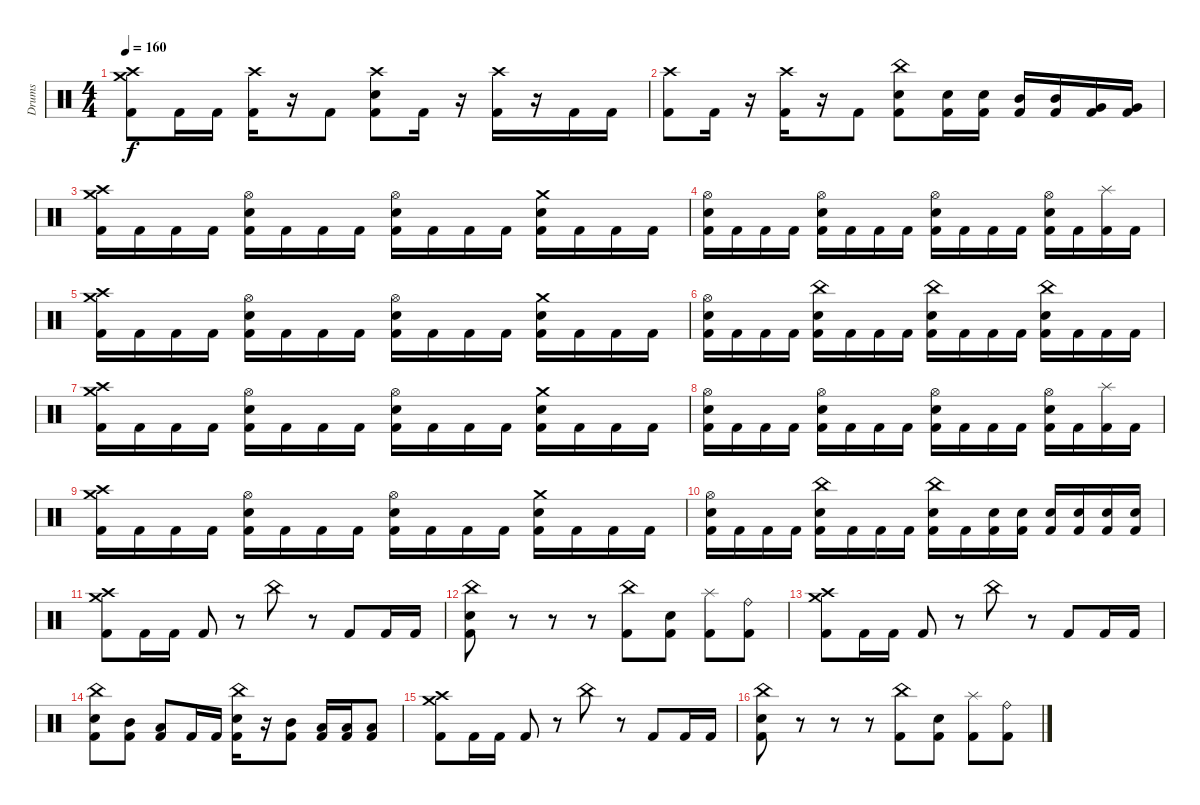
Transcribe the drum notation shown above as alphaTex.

\track ("Drums" "Drums") {instrument percussion}
\staff {score}
\articulation defaults
\ts (4 4)
\tempo 160
\clef neutral
\ks c
("Crash high (hit)" "Crash medium (hit)" "Kick (hit) 2").8{dy f} "Kick (hit) 2".16 "Kick (hit) 2".16 ("Crash high (hit)" "Kick (hit) 2").16 r.16 "Kick (hit) 2".8 ("Crash high (hit)" "Electric Snare (hit)" "Kick (hit) 2").8 "Kick (hit) 2".16 r.16 ("Crash high (hit)" "Kick (hit) 2").16 r.16 "Kick (hit) 2".16 "Kick (hit) 2".16 |
("Crash high (hit)" "Kick (hit) 2").8 "Kick (hit) 2".16 r.16 ("Crash high (hit)" "Kick (hit) 2").16 r.16 "Kick (hit) 2".8 ("China (hit)" "Electric Snare (hit)" "Kick (hit) 2").8 ("Electric Snare (hit)" "Kick (hit) 2").16 ("Electric Snare (hit)" "Kick (hit) 2").16 ("Mid Tom (hit)" "Kick (hit) 2").16 ("Mid Tom (hit)" "Kick (hit) 2").16 ("Very Low Tom (hit)" "Kick (hit) 2").16 ("Very Low Tom (hit)" "Kick (hit) 2").16 |
("Crash high (hit)" "Crash medium (hit)" "Kick (hit) 2").16 "Kick (hit) 2".16 "Kick (hit) 2".16 "Kick (hit) 2".16 ("Hi-Hat (open)" "Electric Snare (hit)" "Kick (hit) 2").16 "Kick (hit) 2".16 "Kick (hit) 2".16 "Kick (hit) 2".16 ("Hi-Hat (open)" "Electric Snare (hit)" "Kick (hit) 2").16 "Kick (hit) 2".16 "Kick (hit) 2".16 "Kick (hit) 2".16 ("Crash medium (hit)" "Electric Snare (hit)" "Kick (hit) 2").16 "Kick (hit) 2".16 "Kick (hit) 2".16 "Kick (hit) 2".16 |
("Hi-Hat (open)" "Electric Snare (hit)" "Kick (hit) 2").16 "Kick (hit) 2".16 "Kick (hit) 2".16 "Kick (hit) 2".16 ("Hi-Hat (open)" "Electric Snare (hit)" "Kick (hit) 2").16 "Kick (hit) 2".16 "Kick (hit) 2".16 "Kick (hit) 2".16 ("Hi-Hat (open)" "Electric Snare (hit)" "Kick (hit) 2").16 "Kick (hit) 2".16 "Kick (hit) 2".16 "Kick (hit) 2".16 ("Hi-Hat (open)" "Electric Snare (hit)" "Kick (hit) 2").16 "Kick (hit) 2".16 ("Splash (hit)" "Kick (hit) 2").16 "Kick (hit) 2".16 |
("Crash high (hit)" "Crash medium (hit)" "Kick (hit) 2").16 "Kick (hit) 2".16 "Kick (hit) 2".16 "Kick (hit) 2".16 ("Hi-Hat (open)" "Electric Snare (hit)" "Kick (hit) 2").16 "Kick (hit) 2".16 "Kick (hit) 2".16 "Kick (hit) 2".16 ("Hi-Hat (open)" "Electric Snare (hit)" "Kick (hit) 2").16 "Kick (hit) 2".16 "Kick (hit) 2".16 "Kick (hit) 2".16 ("Crash medium (hit)" "Electric Snare (hit)" "Kick (hit) 2").16 "Kick (hit) 2".16 "Kick (hit) 2".16 "Kick (hit) 2".16 |
("Hi-Hat (open)" "Electric Snare (hit)" "Kick (hit) 2").16 "Kick (hit) 2".16 "Kick (hit) 2".16 "Kick (hit) 2".16 ("China (hit)" "Electric Snare (hit)" "Kick (hit) 2").16 "Kick (hit) 2".16 "Kick (hit) 2".16 "Kick (hit) 2".16 ("China (hit)" "Electric Snare (hit)" "Kick (hit) 2").16 "Kick (hit) 2".16 "Kick (hit) 2".16 "Kick (hit) 2".16 ("China (hit)" "Electric Snare (hit)" "Kick (hit) 2").16 "Kick (hit) 2".16 "Kick (hit) 2".16 "Kick (hit) 2".16 |
("Crash high (hit)" "Crash medium (hit)" "Kick (hit) 2").16 "Kick (hit) 2".16 "Kick (hit) 2".16 "Kick (hit) 2".16 ("Hi-Hat (open)" "Electric Snare (hit)" "Kick (hit) 2").16 "Kick (hit) 2".16 "Kick (hit) 2".16 "Kick (hit) 2".16 ("Hi-Hat (open)" "Electric Snare (hit)" "Kick (hit) 2").16 "Kick (hit) 2".16 "Kick (hit) 2".16 "Kick (hit) 2".16 ("Crash medium (hit)" "Electric Snare (hit)" "Kick (hit) 2").16 "Kick (hit) 2".16 "Kick (hit) 2".16 "Kick (hit) 2".16 |
("Hi-Hat (open)" "Electric Snare (hit)" "Kick (hit) 2").16 "Kick (hit) 2".16 "Kick (hit) 2".16 "Kick (hit) 2".16 ("Hi-Hat (open)" "Electric Snare (hit)" "Kick (hit) 2").16 "Kick (hit) 2".16 "Kick (hit) 2".16 "Kick (hit) 2".16 ("Hi-Hat (open)" "Electric Snare (hit)" "Kick (hit) 2").16 "Kick (hit) 2".16 "Kick (hit) 2".16 "Kick (hit) 2".16 ("Hi-Hat (open)" "Electric Snare (hit)" "Kick (hit) 2").16 "Kick (hit) 2".16 ("Splash (hit)" "Kick (hit) 2").16 "Kick (hit) 2".16 |
("Crash high (hit)" "Crash medium (hit)" "Kick (hit) 2").16 "Kick (hit) 2".16 "Kick (hit) 2".16 "Kick (hit) 2".16 ("Hi-Hat (open)" "Electric Snare (hit)" "Kick (hit) 2").16 "Kick (hit) 2".16 "Kick (hit) 2".16 "Kick (hit) 2".16 ("Hi-Hat (open)" "Electric Snare (hit)" "Kick (hit) 2").16 "Kick (hit) 2".16 "Kick (hit) 2".16 "Kick (hit) 2".16 ("Crash medium (hit)" "Electric Snare (hit)" "Kick (hit) 2").16 "Kick (hit) 2".16 "Kick (hit) 2".16 "Kick (hit) 2".16 |
("Hi-Hat (open)" "Electric Snare (hit)" "Kick (hit) 2").16 "Kick (hit) 2".16 "Kick (hit) 2".16 "Kick (hit) 2".16 ("China (hit)" "Electric Snare (hit)" "Kick (hit) 2").16 "Kick (hit) 2".16 "Kick (hit) 2".16 "Kick (hit) 2".16 ("China (hit)" "Electric Snare (hit)" "Kick (hit) 2").16 "Kick (hit) 2".16 ("Electric Snare (hit)" "Kick (hit) 2").16 ("Electric Snare (hit)" "Kick (hit) 2").16 ("Electric Snare (hit)" "Kick (hit) 2").16 ("Electric Snare (hit)" "Kick (hit) 2").16 ("Electric Snare (hit)" "Kick (hit) 2").16 ("Electric Snare (hit)" "Kick (hit) 2").16 |
("Crash high (hit)" "Crash medium (hit)" "Kick (hit) 2").8 "Kick (hit) 2".16 "Kick (hit) 2".16 "Kick (hit) 2".8 r.8 "China (hit)".8 r.8 "Kick (hit) 2".8 "Kick (hit) 2".16 "Kick (hit) 2".16 |
("China (hit)" "Electric Snare (hit)" "Kick (hit) 2").8 r.8 r.8 r.8 ("China (hit)" "Kick (hit) 2").8 ("Electric Snare (hit)" "Kick (hit) 2").8 ("Splash (hit)" "Kick (hit) 2").8 ("Ride (bell)" "Kick (hit) 2").8 |
("Crash high (hit)" "Crash medium (hit)" "Kick (hit) 2").8 "Kick (hit) 2".16 "Kick (hit) 2".16 "Kick (hit) 2".8 r.8 "China (hit)".8 r.8 "Kick (hit) 2".8 "Kick (hit) 2".16 "Kick (hit) 2".16 |
("China (hit)" "Electric Snare (hit)" "Kick (hit) 2").8 ("Mid Tom (hit)" "Kick (hit) 2").8 ("Low Tom (hit)" "Kick (hit) 2").8 "Kick (hit) 2".16 "Kick (hit) 2".16 ("China (hit)" "Electric Snare (hit)" "Kick (hit) 2").16 r.16 ("Mid Tom (hit)" "Kick (hit) 2").8 ("Low Tom (hit)" "Kick (hit) 2").16 ("Low Tom (hit)" "Kick (hit) 2").16 ("Low Tom (hit)" "Kick (hit) 2").8 |
("Crash high (hit)" "Crash medium (hit)" "Kick (hit) 2").8 "Kick (hit) 2".16 "Kick (hit) 2".16 "Kick (hit) 2".8 r.8 "China (hit)".8 r.8 "Kick (hit) 2".8 "Kick (hit) 2".16 "Kick (hit) 2".16 |
("China (hit)" "Electric Snare (hit)" "Kick (hit) 2").8 r.8 r.8 r.8 ("China (hit)" "Kick (hit) 2").8 ("Electric Snare (hit)" "Kick (hit) 2").8 ("Splash (hit)" "Kick (hit) 2").8 ("Ride (bell)" "Kick (hit) 2").8
